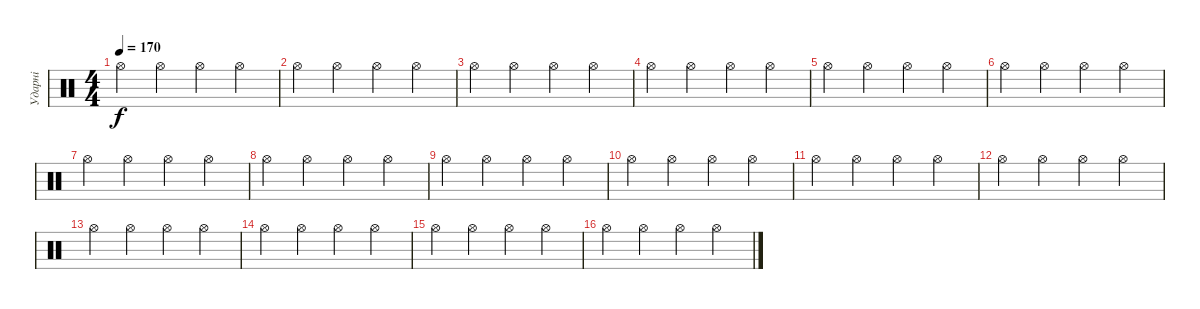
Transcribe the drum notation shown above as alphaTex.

\track ("Ударні" "Ударні") {instrument percussion}
\staff {score}
\articulation defaults
\ts (4 4)
\tempo 170
\clef neutral
\ks c "Hi-Hat (open)".4{dy f} "Hi-Hat (open)".4 "Hi-Hat (open)".4 "Hi-Hat (open)".4
|
"Hi-Hat (open)".4 "Hi-Hat (open)".4 "Hi-Hat (open)".4 "Hi-Hat (open)".4 |
"Hi-Hat (open)".4 "Hi-Hat (open)".4 "Hi-Hat (open)".4 "Hi-Hat (open)".4 |
"Hi-Hat (open)".4 "Hi-Hat (open)".4 "Hi-Hat (open)".4 "Hi-Hat (open)".4 |
"Hi-Hat (open)".4 "Hi-Hat (open)".4 "Hi-Hat (open)".4 "Hi-Hat (open)".4 |
"Hi-Hat (open)".4 "Hi-Hat (open)".4 "Hi-Hat (open)".4 "Hi-Hat (open)".4 |
"Hi-Hat (open)".4 "Hi-Hat (open)".4 "Hi-Hat (open)".4 "Hi-Hat (open)".4 |
"Hi-Hat (open)".4 "Hi-Hat (open)".4 "Hi-Hat (open)".4 "Hi-Hat (open)".4 |
"Hi-Hat (open)".4 "Hi-Hat (open)".4 "Hi-Hat (open)".4 "Hi-Hat (open)".4 |
"Hi-Hat (open)".4 "Hi-Hat (open)".4 "Hi-Hat (open)".4 "Hi-Hat (open)".4 |
"Hi-Hat (open)".4 "Hi-Hat (open)".4 "Hi-Hat (open)".4 "Hi-Hat (open)".4 |
"Hi-Hat (open)".4 "Hi-Hat (open)".4 "Hi-Hat (open)".4 "Hi-Hat (open)".4 |
"Hi-Hat (open)".4 "Hi-Hat (open)".4 "Hi-Hat (open)".4 "Hi-Hat (open)".4 |
"Hi-Hat (open)".4 "Hi-Hat (open)".4 "Hi-Hat (open)".4 "Hi-Hat (open)".4 |
"Hi-Hat (open)".4 "Hi-Hat (open)".4 "Hi-Hat (open)".4 "Hi-Hat (open)".4 |
"Hi-Hat (open)".4 "Hi-Hat (open)".4 "Hi-Hat (open)".4 "Hi-Hat (open)".4
